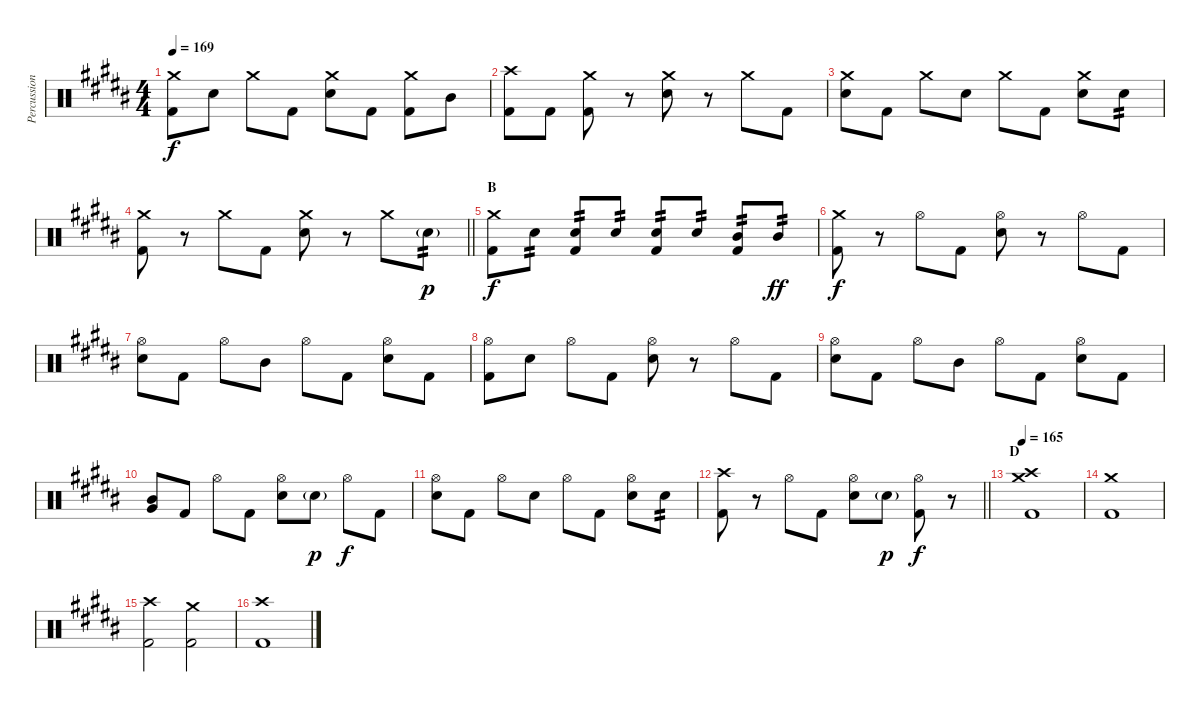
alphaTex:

\track ("Percussion" "Percussion") {instrument percussion}
\staff {score}
\articulation defaults
\ts (4 4)
\tempo 169
\clef neutral
\ks g#minor
("Crash medium (hit)" "Kick (hit) 2").8{dy f} "Snare (hit) 2".8 "Crash medium (hit)".8 "Kick (hit) 2".8 ("Crash medium (hit)" "Snare (hit) 2").8 "Kick (hit) 2".8 ("Crash medium (hit)" "Kick (hit) 2").8 "Mid Tom (hit)".8 |
("Crash high (hit)" "Kick (hit) 2").8 "Kick (hit) 2".8 ("Crash medium (hit)" "Kick (hit) 2").8 r.8 ("Crash medium (hit)" "Snare (hit) 2").8 r.8 "Crash medium (hit)".8 "Kick (hit) 2".8 |
("Crash medium (hit)" "Snare (hit) 2").8 "Kick (hit) 2".8 "Crash medium (hit)".8 "Snare (hit) 2".8 "Crash medium (hit)".8 "Kick (hit) 2".8 ("Crash medium (hit)" "Snare (hit) 2").8 "Snare (hit) 2".8{tp 2} |
\barLineRight lightlight
("Crash medium (hit)" "Kick (hit) 2").8 r.8 "Crash medium (hit)".8 "Kick (hit) 2".8 ("Crash medium (hit)" "Snare (hit) 2").8 r.8 "Crash medium (hit)".8 "Snare (hit) 2"{g}.8{tp 2 dy p} |
\section ("" "B")
("Crash medium (hit)" "Kick (hit) 2").8{dy f} "Snare (hit) 2".8{tp 2} ("Snare (hit) 2" "Kick (hit) 2").8{tp 2} "Snare (hit) 2".8{tp 2} ("Snare (hit) 2" "Kick (hit) 2").8{tp 2} "Snare (hit) 2".8{tp 2} ("Mid Tom (hit)" "Kick (hit) 2").8{tp 2} "Mid Tom (hit)".8{tp 2 dy ff} |
("Crash medium (hit)" "Kick (hit) 2").8{dy f} r.8 "Hi-Hat (open)".8 "Kick (hit) 2".8 ("Hi-Hat (open)" "Snare (hit) 2").8 r.8 "Hi-Hat (open)".8 "Kick (hit) 2".8 |
("Hi-Hat (open)" "Snare (hit) 2").8 "Kick (hit) 2".8 "Hi-Hat (open)".8 "Mid Tom (hit)".8 "Hi-Hat (open)".8 "Kick (hit) 2".8 ("Hi-Hat (open)" "Snare (hit) 2").8 "Kick (hit) 2".8 |
("Hi-Hat (open)" "Kick (hit) 2").8 "Snare (hit) 2".8 "Hi-Hat (open)".8 "Kick (hit) 2".8 ("Hi-Hat (open)" "Snare (hit) 2").8 r.8 "Hi-Hat (open)".8 "Kick (hit) 2".8 |
("Hi-Hat (open)" "Snare (hit) 2").8 "Kick (hit) 2".8 "Hi-Hat (open)".8 "Mid Tom (hit)".8 "Hi-Hat (open)".8 "Kick (hit) 2".8 ("Hi-Hat (open)" "Snare (hit) 2").8 "Kick (hit) 2".8 |
("Mid Tom (hit)" "Very Low Tom (hit)").8{bu 60} "Kick (hit) 2".8 "Hi-Hat (open)".8 "Kick (hit) 2".8 ("Hi-Hat (open)" "Snare (hit) 2").8 "Snare (hit) 2"{g}.8{dy p} "Hi-Hat (open)".8{dy f} "Kick (hit) 2".8 |
("Hi-Hat (open)" "Snare (hit) 2").8 "Kick (hit) 2".8 "Hi-Hat (open)".8 "Snare (hit) 2".8 "Hi-Hat (open)".8 "Kick (hit) 2".8 ("Hi-Hat (open)" "Snare (hit) 2").8 "Snare (hit) 2".8{tp 2} |
\barLineRight lightlight
("Crash high (hit)" "Kick (hit) 2").8 r.8 "Hi-Hat (open)".8 "Kick (hit) 2".8 ("Hi-Hat (open)" "Snare (hit) 2").8 "Snare (hit) 2"{g}.8{dy p} ("Hi-Hat (open)" "Kick (hit) 2").8{dy f} r.8 |
\section ("" "D")
\tempo 165
("Crash medium (hit)" "Crash high (hit)" "Kick (hit) 2").1 |
("Crash medium (hit)" "Kick (hit) 2").1 |
("Crash high (hit)" "Kick (hit) 2").2 ("Crash medium (hit)" "Kick (hit) 2").2 |
("Crash high (hit)" "Kick (hit) 2").1
